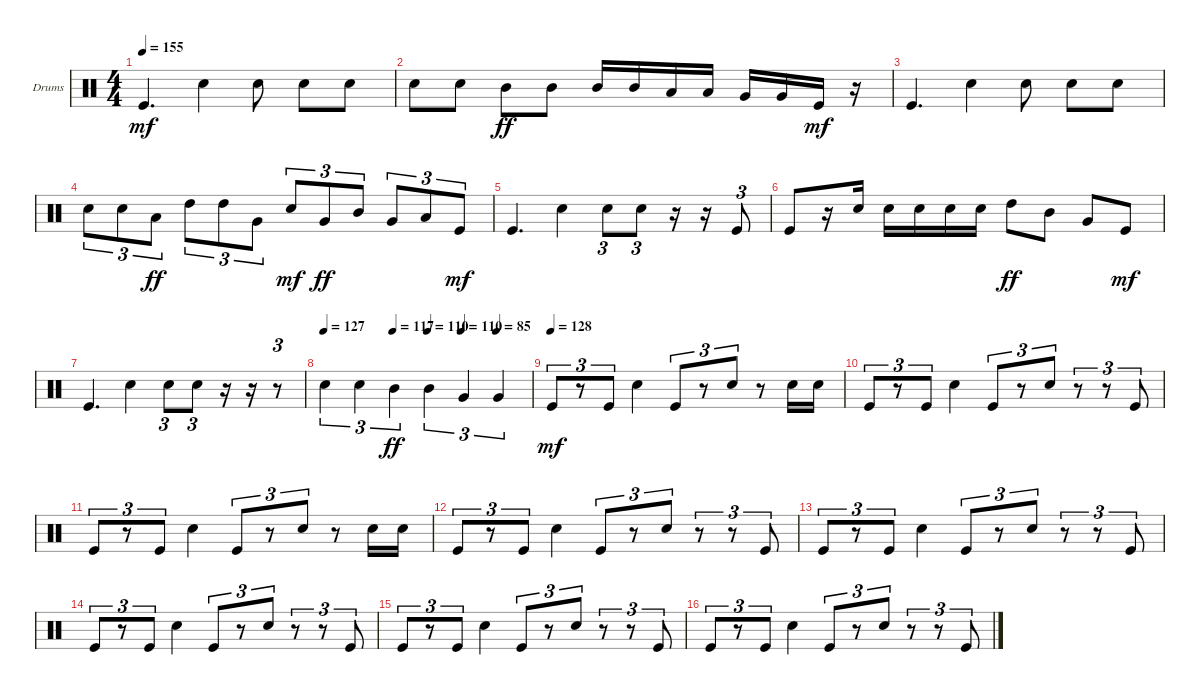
\defaultSystemsLayout 4
\bracketExtendMode groupsimilarinstruments
\firstSystemTrackNameOrientation horizontal
\otherSystemsTrackNameOrientation horizontal
\track ("Drumkit" "Drums") {instrument percussion}
\staff {score}
\articulation defaults
\ts (4 4)
\tempo 155
\clef neutral
\scale
0.333333
\ks c "Kick (hit)".4{d dy mf} "Snare (hit) 2".4 "Snare (hit) 2".8 "Snare (hit) 2".8 "Snare (hit) 2".8
|
\scale
0.333333 "Snare (hit) 2".8 "Snare (hit) 2".8 "Mid Tom (hit)".8{dy ff} "Mid Tom (hit)".8 "Mid Tom (hit)".16 "Mid Tom (hit)".16 "Low Tom (hit)".16 "Low Tom (hit)".16 "Very Low Tom (hit)".16 "Very Low Tom (hit)".16 "Kick (hit)".16{dy mf} r.16 |
\scale
0.333333 "Kick (hit)".4{d} "Snare (hit) 2".4 "Snare (hit) 2".8 "Snare (hit) 2".8 "Snare (hit) 2".8 |
\scale
0.333333 "Snare (hit) 2".8{tu (3 2)} "Snare (hit) 2".8{tu (3 2)} "Low Tom (hit)".8{tu (3 2) dy ff} "High Tom (hit)".8{tu (3 2)} "High Tom (hit)".8{tu (3 2)} "Very Low Tom (hit)".8{tu (3 2)} "Snare (hit) 2".8{tu (3 2) dy mf} "Very Low Tom (hit)".8{tu (3 2) dy ff} "Mid Tom (hit)".8{tu (3 2)} "Very Low Tom (hit)".8{tu (3 2)} "Low Tom (hit)".8{tu (3 2)} "Kick (hit)".8{tu (3 2) dy mf} |
\scale
0.333333 "Kick (hit)".4{d} "Snare (hit) 2".4 "Snare (hit) 2".8{tu (3 2)} "Snare (hit) 2".8{tu (3 2)} r.16 r.16 "Kick (hit)".8{tu (3 2)} |
\scale
0.333333 "Kick (hit)".8 r.16 "Snare (hit) 2".16 "Snare (hit) 2".16 "Snare (hit) 2".16 "Snare (hit) 2".16 "Snare (hit) 2".16 "High Tom (hit)".8{dy ff} "Mid Tom (hit)".8 "Very Low Tom (hit)".8 "Kick (hit)".8{dy mf} |
\scale
0.333333 "Kick (hit)".4{d} "Snare (hit) 2".4 "Snare (hit) 2".8{tu (3 2)} "Snare (hit) 2".8{tu (3 2)} r.16 r.16 r.8{tu (3 2)} |
\tempo 127
\tempo (117 0.333333)
\tempo (110 0.5)
\tempo (110 0.6625)
\tempo (85 0.833333)
\scale
0.333333 "Snare (hit) 2".4{tu (3 2)} "Snare (hit) 2".4{tu (3 2)} "Mid Tom (hit)".4{tu (3 2) dy ff} "Mid Tom (hit)".4{tu (3 2)} "Very Low Tom (hit)".4{tu (3 2)} "Very Low Tom (hit)".4{tu (3 2)} |
\tempo 128
\scale
0.333333 "Kick (hit)".8{tu (3 2) dy mf} r.8{tu (3 2)} "Kick (hit)".8{tu (3 2)} "Snare (hit) 2".4 "Kick (hit)".8{tu (3 2)} r.8{tu (3 2)} "Snare (hit) 2".8{tu (3 2)} r.8 "Snare (hit) 2".16 "Snare (hit) 2".16 |
\scale
0.333333 "Kick (hit)".8{tu (3 2)} r.8{tu (3 2)} "Kick (hit)".8{tu (3 2)} "Snare (hit) 2".4 "Kick (hit)".8{tu (3 2)} r.8{tu (3 2)} "Snare (hit) 2".8{tu (3 2)} r.8{tu (3 2)} r.8{tu (3 2)} "Kick (hit)".8{tu (3 2)} |
\scale
0.333333 "Kick (hit)".8{tu (3 2)} r.8{tu (3 2)} "Kick (hit)".8{tu (3 2)} "Snare (hit) 2".4 "Kick (hit)".8{tu (3 2)} r.8{tu (3 2)} "Snare (hit) 2".8{tu (3 2)} r.8 "Snare (hit) 2".16 "Snare (hit) 2".16 |
\scale
0.333333 "Kick (hit)".8{tu (3 2)} r.8{tu (3 2)} "Kick (hit)".8{tu (3 2)} "Snare (hit) 2".4 "Kick (hit)".8{tu (3 2)} r.8{tu (3 2)} "Snare (hit) 2".8{tu (3 2)} r.8{tu (3 2)} r.8{tu (3 2)} "Kick (hit)".8{tu (3 2)} |
\scale
0.333333 "Kick (hit)".8{tu (3 2)} r.8{tu (3 2)} "Kick (hit)".8{tu (3 2)} "Snare (hit) 2".4 "Kick (hit)".8{tu (3 2)} r.8{tu (3 2)} "Snare (hit) 2".8{tu (3 2)} r.8{tu (3 2)} r.8{tu (3 2)} "Kick (hit)".8{tu (3 2)} |
\scale
0.333333 "Kick (hit)".8{tu (3 2)} r.8{tu (3 2)} "Kick (hit)".8{tu (3 2)} "Snare (hit) 2".4 "Kick (hit)".8{tu (3 2)} r.8{tu (3 2)} "Snare (hit) 2".8{tu (3 2)} r.8{tu (3 2)} r.8{tu (3 2)} "Kick (hit)".8{tu (3 2)} |
\scale
0.333333 "Kick (hit)".8{tu (3 2)} r.8{tu (3 2)} "Kick (hit)".8{tu (3 2)} "Snare (hit) 2".4 "Kick (hit)".8{tu (3 2)} r.8{tu (3 2)} "Snare (hit) 2".8{tu (3 2)} r.8{tu (3 2)} r.8{tu (3 2)} "Kick (hit)".8{tu (3 2)} |
\scale
0.333333 "Kick (hit)".8{tu (3 2)} r.8{tu (3 2)} "Kick (hit)".8{tu (3 2)} "Snare (hit) 2".4 "Kick (hit)".8{tu (3 2)} r.8{tu (3 2)} "Snare (hit) 2".8{tu (3 2)} r.8{tu (3 2)} r.8{tu (3 2)} "Kick (hit)".8{tu (3 2)}
